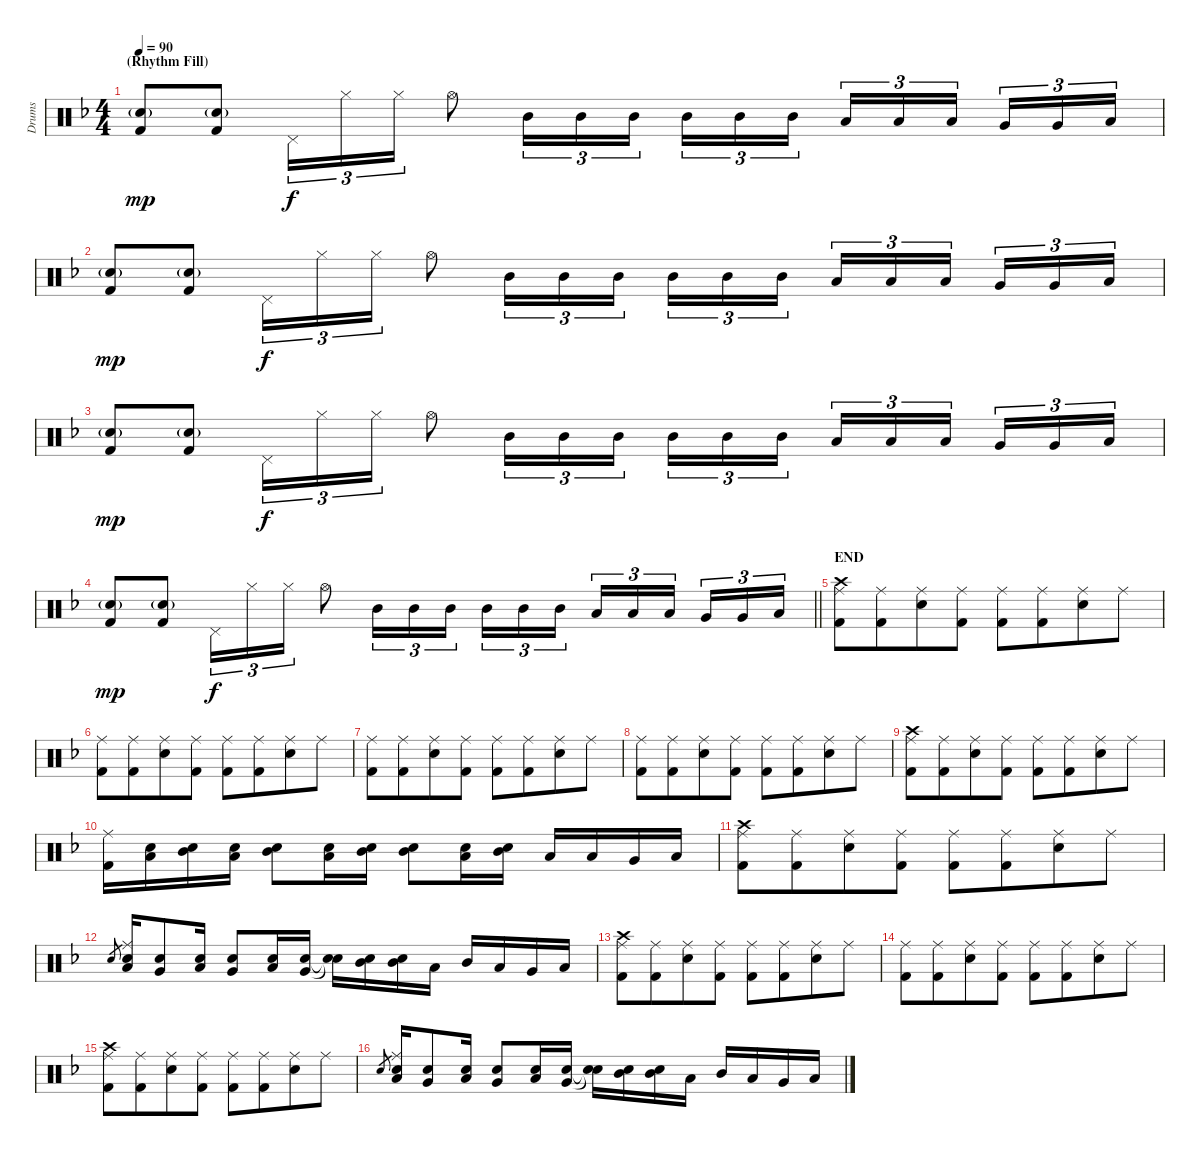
\track ("Drums" "Drums") {instrument percussion}
\staff {score}
\articulation defaults
\ts (4 4)
\section ("" "(Rhythm Fill)")
\tempo 90
\clef neutral
\ks dminor
("Hand Clap (hit)"{g} "Kick (hit) 2").8{dy mp} ("Hand Clap (hit)"{g} "Kick (hit) 2").8 "Pedal Hi-Hat (hit)".16{tu (3 2) dy f} "Hi-Hat (closed)".16{tu (3 2)} "Hi-Hat (closed)".16{tu (3 2)} "Hi-Hat (open)".8 "Mid Tom (hit)".16{tu (3 2)} "Mid Tom (hit)".16{tu (3 2)} "Mid Tom (hit)".16{tu (3 2) beam splitsecondary} "Mid Tom (hit)".16{tu (3 2)} "Mid Tom (hit)".16{tu (3 2)} "Mid Tom (hit)".16{tu (3 2)} "Low Tom (hit)".16{tu (3 2)} "Low Tom (hit)".16{tu (3 2)} "Low Tom (hit)".16{tu (3 2) beam splitsecondary} "Very Low Tom (hit)".16{tu (3 2)} "Very Low Tom (hit)".16{tu (3 2)} "Low Floor Tom (hit)".16{tu (3 2)} |
("Hand Clap (hit)"{g} "Kick (hit) 2").8{dy mp} ("Hand Clap (hit)"{g} "Kick (hit) 2").8 "Pedal Hi-Hat (hit)".16{tu (3 2) dy f} "Hi-Hat (closed)".16{tu (3 2)} "Hi-Hat (closed)".16{tu (3 2)} "Hi-Hat (open)".8 "Mid Tom (hit)".16{tu (3 2)} "Mid Tom (hit)".16{tu (3 2)} "Mid Tom (hit)".16{tu (3 2) beam splitsecondary} "Mid Tom (hit)".16{tu (3 2)} "Mid Tom (hit)".16{tu (3 2)} "Mid Tom (hit)".16{tu (3 2)} "Low Tom (hit)".16{tu (3 2)} "Low Tom (hit)".16{tu (3 2)} "Low Tom (hit)".16{tu (3 2) beam splitsecondary} "Very Low Tom (hit)".16{tu (3 2)} "Very Low Tom (hit)".16{tu (3 2)} "Low Floor Tom (hit)".16{tu (3 2)} |
("Hand Clap (hit)"{g} "Kick (hit) 2").8{dy mp} ("Hand Clap (hit)"{g} "Kick (hit) 2").8 "Pedal Hi-Hat (hit)".16{tu (3 2) dy f} "Hi-Hat (closed)".16{tu (3 2)} "Hi-Hat (closed)".16{tu (3 2)} "Hi-Hat (open)".8 "Mid Tom (hit)".16{tu (3 2)} "Mid Tom (hit)".16{tu (3 2)} "Mid Tom (hit)".16{tu (3 2) beam splitsecondary} "Mid Tom (hit)".16{tu (3 2)} "Mid Tom (hit)".16{tu (3 2)} "Mid Tom (hit)".16{tu (3 2)} "Low Tom (hit)".16{tu (3 2)} "Low Tom (hit)".16{tu (3 2)} "Low Tom (hit)".16{tu (3 2) beam splitsecondary} "Very Low Tom (hit)".16{tu (3 2)} "Very Low Tom (hit)".16{tu (3 2)} "Low Floor Tom (hit)".16{tu (3 2)} |
\barLineRight lightlight
("Hand Clap (hit)"{g} "Kick (hit) 2").8{dy mp} ("Hand Clap (hit)"{g} "Kick (hit) 2").8 "Pedal Hi-Hat (hit)".16{tu (3 2) dy f} "Hi-Hat (closed)".16{tu (3 2)} "Hi-Hat (closed)".16{tu (3 2)} "Hi-Hat (open)".8 "Mid Tom (hit)".16{tu (3 2)} "Mid Tom (hit)".16{tu (3 2)} "Mid Tom (hit)".16{tu (3 2) beam splitsecondary} "Mid Tom (hit)".16{tu (3 2)} "Mid Tom (hit)".16{tu (3 2)} "Mid Tom (hit)".16{tu (3 2)} "Low Tom (hit)".16{tu (3 2)} "Low Tom (hit)".16{tu (3 2)} "Low Tom (hit)".16{tu (3 2) beam splitsecondary} "Very Low Tom (hit)".16{tu (3 2)} "Very Low Tom (hit)".16{tu (3 2)} "Low Floor Tom (hit)".16{tu (3 2)} |
\section ("" "END")
("Crash high (hit)" "Ride (middle)" "Kick (hit) 2").8 ("Ride (middle)" "Kick (hit) 2").8{beam merge} ("Ride (middle)" "Electric Snare (hit)").8 ("Ride (middle)" "Kick (hit) 2").8 ("Ride (middle)" "Kick (hit) 2").8 ("Ride (middle)" "Kick (hit) 2").8{beam merge} ("Ride (middle)" "Electric Snare (hit)").8 "Ride (middle)".8 |
("Ride (middle)" "Kick (hit) 2").8 ("Ride (middle)" "Kick (hit) 2").8{beam merge} ("Ride (middle)" "Electric Snare (hit)").8 ("Ride (middle)" "Kick (hit) 2").8 ("Ride (middle)" "Kick (hit) 2").8 ("Ride (middle)" "Kick (hit) 2").8{beam merge} ("Ride (middle)" "Electric Snare (hit)").8 "Ride (middle)".8 |
("Ride (middle)" "Kick (hit) 2").8 ("Ride (middle)" "Kick (hit) 2").8{beam merge} ("Ride (middle)" "Electric Snare (hit)").8 ("Ride (middle)" "Kick (hit) 2").8 ("Ride (middle)" "Kick (hit) 2").8 ("Ride (middle)" "Kick (hit) 2").8{beam merge} ("Ride (middle)" "Electric Snare (hit)").8 "Ride (middle)".8 |
("Ride (middle)" "Kick (hit) 2").8 ("Ride (middle)" "Kick (hit) 2").8{beam merge} ("Ride (middle)" "Electric Snare (hit)").8 ("Ride (middle)" "Kick (hit) 2").8 ("Ride (middle)" "Kick (hit) 2").8 ("Ride (middle)" "Kick (hit) 2").8{beam merge} ("Ride (middle)" "Electric Snare (hit)").8 "Ride (middle)".8 |
("Crash high (hit)" "Ride (middle)" "Kick (hit) 2").8 ("Ride (middle)" "Kick (hit) 2").8{beam merge} ("Ride (middle)" "Electric Snare (hit)").8 ("Ride (middle)" "Kick (hit) 2").8 ("Ride (middle)" "Kick (hit) 2").8 ("Ride (middle)" "Kick (hit) 2").8{beam merge} ("Ride (middle)" "Electric Snare (hit)").8 "Ride (middle)".8 |
("Ride (middle)" "Kick (hit) 2").16 ("Low Tom (hit)" "Electric Snare (hit)").16 ("Mid Tom (hit)" "Electric Snare (hit)").16 ("Low Tom (hit)" "Electric Snare (hit)").16 ("Mid Tom (hit)" "Electric Snare (hit)").8 ("Low Tom (hit)" "Electric Snare (hit)").16 ("Mid Tom (hit)" "Electric Snare (hit)").16 ("Mid Tom (hit)" "Electric Snare (hit)").8 ("Low Tom (hit)" "Electric Snare (hit)").16 ("Mid Tom (hit)" "Electric Snare (hit)").16 "Low Tom (hit)".16 "Low Tom (hit)".16 "Very Low Tom (hit)".16 "Low Floor Tom (hit)".16 |
("Crash high (hit)" "Ride (middle)" "Kick (hit) 2").8 ("Ride (middle)" "Kick (hit) 2").8{beam merge} ("Ride (middle)" "Electric Snare (hit)").8 ("Ride (middle)" "Kick (hit) 2").8 ("Ride (middle)" "Kick (hit) 2").8 ("Ride (middle)" "Kick (hit) 2").8{beam merge} ("Ride (middle)" "Electric Snare (hit)").8 "Ride (middle)".8 |
"Electric Snare (hit)".8{gr} ("Ride (middle)" "Low Tom (hit)" "Electric Snare (hit)").16 ("Very Low Tom (hit)" "Electric Snare (hit)").8 ("Low Tom (hit)" "Electric Snare (hit)").16 ("Very Low Tom (hit)" "Electric Snare (hit)").8 ("Low Tom (hit)" "Electric Snare (hit)").16 ("Very Low Tom (hit)" "Electric Snare (hit)").16 ("Snare (hit)"{t} "Snare (hit)"{t}).16 ("Mid Tom (hit)" "Electric Snare (hit)").16 ("Mid Tom (hit)" "Electric Snare (hit)").16 "Low Tom (hit)".16 "Mid Tom (hit)".16 "Low Tom (hit)".16 "Very Low Tom (hit)".16 "Low Floor Tom (hit)".16 |
("Crash high (hit)" "Ride (middle)" "Kick (hit) 2").8 ("Ride (middle)" "Kick (hit) 2").8{beam merge} ("Ride (middle)" "Electric Snare (hit)").8 ("Ride (middle)" "Kick (hit) 2").8 ("Ride (middle)" "Kick (hit) 2").8 ("Ride (middle)" "Kick (hit) 2").8{beam merge} ("Ride (middle)" "Electric Snare (hit)").8 "Ride (middle)".8 |
("Ride (middle)" "Kick (hit) 2").8 ("Ride (middle)" "Kick (hit) 2").8{beam merge} ("Ride (middle)" "Electric Snare (hit)").8 ("Ride (middle)" "Kick (hit) 2").8 ("Ride (middle)" "Kick (hit) 2").8 ("Ride (middle)" "Kick (hit) 2").8{beam merge} ("Ride (middle)" "Electric Snare (hit)").8 "Ride (middle)".8 |
("Crash high (hit)" "Ride (middle)" "Kick (hit) 2").8 ("Ride (middle)" "Kick (hit) 2").8{beam merge} ("Ride (middle)" "Electric Snare (hit)").8 ("Ride (middle)" "Kick (hit) 2").8 ("Ride (middle)" "Kick (hit) 2").8 ("Ride (middle)" "Kick (hit) 2").8{beam merge} ("Ride (middle)" "Electric Snare (hit)").8 "Ride (middle)".8 |
"Electric Snare (hit)".8{gr} ("Ride (middle)" "Low Tom (hit)" "Electric Snare (hit)").16 ("Very Low Tom (hit)" "Electric Snare (hit)").8 ("Low Tom (hit)" "Electric Snare (hit)").16 ("Very Low Tom (hit)" "Electric Snare (hit)").8 ("Low Tom (hit)" "Electric Snare (hit)").16 ("Very Low Tom (hit)" "Electric Snare (hit)").16 ("Snare (hit)"{t} "Snare (hit)"{t}).16 ("Mid Tom (hit)" "Electric Snare (hit)").16 ("Mid Tom (hit)" "Electric Snare (hit)").16 "Low Tom (hit)".16 "Mid Tom (hit)".16 "Low Tom (hit)".16 "Very Low Tom (hit)".16 "Low Floor Tom (hit)".16
